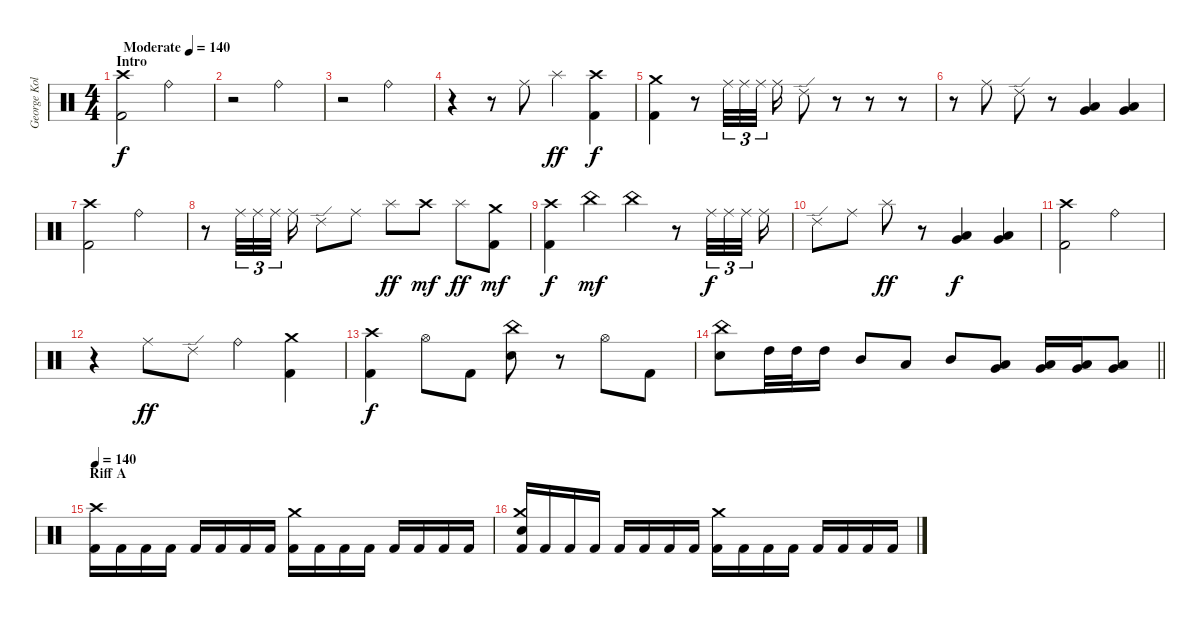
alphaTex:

\track ("George Kollias" "George Kol") {instrument percussion}
\staff {score}
\articulation defaults
\ts (4 4)
\section ("" "Intro")
\tempo (140 "Moderate")
\tempo 96
\tempo (140 "Moderate")
\clef neutral
\ks c
("Crash high (hit)" "Kick (hit) 2").2{dy f} "Ride (bell)".2 |
r.2 "Ride (bell)".2 |
r.2 "Ride (bell)".2 |
r.4 r.8 "Ride (middle)".8 "Splash (hit)".4{dy ff} ("Crash high (hit)" "Kick (hit) 2").4{dy f} |
("Crash medium (hit)" "Kick (hit) 2").4 r.8 "Ride (middle)".32{tu (3 2)} "Ride (middle)".32{tu (3 2)} "Ride (middle)".32{tu (3 2) beam splitsecondary} "Ride (middle)".16 "Ride (edge) 2".8 r.8 r.8 r.8 |
r.8 "Ride (middle)".8 "Ride (edge) 2".8 r.8 ("Low Tom (hit)" "Very Low Tom (hit)").4 ("Very Low Tom (hit)" "Low Floor Tom (hit)").4 |
("Crash high (hit)" "Kick (hit) 2").2 "Ride (bell)".2 |
r.8 "Ride (middle)".32{tu (3 2)} "Ride (middle)".32{tu (3 2)} "Ride (middle)".32{tu (3 2) beam splitsecondary} "Ride (middle)".16 "Ride (edge) 2".8 "Ride (middle)".8 "Splash (hit)".8{dy ff} "Crash high (hit)".8{dy mf} "Splash (hit)".8{dy ff} ("Crash medium (hit)" "Kick (hit) 2").8{dy mf} |
("Crash high (hit)" "Kick (hit) 2").4{dy f} "China (hit)".4{dy mf} "China (hit)".4 r.8 "Ride (middle)".32{tu (3 2) dy f} "Ride (middle)".32{tu (3 2)} "Ride (middle)".32{tu (3 2) beam splitsecondary} "Ride (middle)".16 |
"Ride (edge) 2".8 "Ride (middle)".8 "Splash (hit)".8{dy ff} r.8 ("Low Tom (hit)" "Very Low Tom (hit)").4{dy f} ("Very Low Tom (hit)" "Low Floor Tom (hit)").4 |
("Crash high (hit)" "Kick (hit) 2").2 "Ride (bell)".2 |
r.4 "Ride (middle)".8{dy ff} "Ride (edge) 2".8 "Ride (bell)".4 ("Crash medium (hit)" "Kick (hit) 2").4 |
("Crash high (hit)" "Kick (hit) 2").4{dy f} "Hi-Hat (open)".8 "Kick (hit) 2".8 ("China (hit)" "Electric Snare (hit)").8 r.8 "Hi-Hat (open)".8 "Kick (hit) 2".8 |
\barLineRight lightlight
("China (hit)" "Electric Snare (hit)").8 "High Tom (hit)".32 "High Tom (hit)".32 "High Tom (hit)".16 "Mid Tom (hit)".8 "Low Tom (hit)".8 "Mid Tom (hit)".8 ("Low Tom (hit)" "Very Low Tom (hit)").8 ("Very Low Tom (hit)" "Low Floor Tom (hit)").16 ("Very Low Tom (hit)" "Low Floor Tom (hit)").16 ("Very Low Tom (hit)" "Low Floor Tom (hit)").8 |
\section ("" "Riff A")
\tempo 140
("Crash high (hit)" "Kick (hit) 2").16 "Kick (hit) 2".16 "Kick (hit) 2".16 "Kick (hit) 2".16 "Kick (hit) 2".16 "Kick (hit) 2".16 "Kick (hit) 2".16 "Kick (hit) 2".16 ("Crash medium (hit)" "Kick (hit) 2").16 "Kick (hit) 2".16 "Kick (hit) 2".16 "Kick (hit) 2".16 "Kick (hit) 2".16 "Kick (hit) 2".16 "Kick (hit) 2".16 "Kick (hit) 2".16 |
("Crash medium (hit)" "Electric Snare (hit)" "Kick (hit) 2").16 "Kick (hit) 2".16 "Kick (hit) 2".16 "Kick (hit) 2".16 "Kick (hit) 2".16 "Kick (hit) 2".16 "Kick (hit) 2".16 "Kick (hit) 2".16 ("Crash medium (hit)" "Kick (hit) 2").16 "Kick (hit) 2".16 "Kick (hit) 2".16 "Kick (hit) 2".16 "Kick (hit) 2".16 "Kick (hit) 2".16 "Kick (hit) 2".16 "Kick (hit) 2".16
